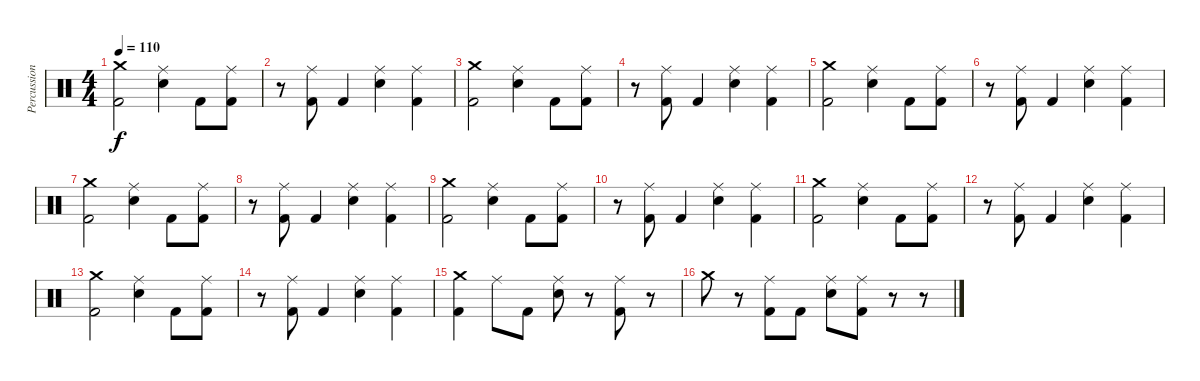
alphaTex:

\track ("Percussion" "Percussion") {instrument percussion}
\staff {score}
\articulation defaults
\ts (4 4)
\tempo 110
\clef neutral
\ks c
("Crash medium (hit)" "Kick (hit) 2").2{dy f} ("Ride (middle)" "Electric Snare (hit)").4 "Kick (hit) 2".8 ("Ride (middle)" "Kick (hit) 2").8 |
r.8 ("Ride (middle)" "Kick (hit) 2").8 "Kick (hit) 2".4 ("Ride (middle)" "Electric Snare (hit)").4 ("Ride (middle)" "Kick (hit) 2").4 |
("Crash medium (hit)" "Kick (hit) 2").2 ("Ride (middle)" "Electric Snare (hit)").4 "Kick (hit) 2".8 ("Ride (middle)" "Kick (hit) 2").8 |
r.8 ("Ride (middle)" "Kick (hit) 2").8 "Kick (hit) 2".4 ("Ride (middle)" "Electric Snare (hit)").4 ("Ride (middle)" "Kick (hit) 2").4 |
("Crash medium (hit)" "Kick (hit) 2").2 ("Ride (middle)" "Electric Snare (hit)").4 "Kick (hit) 2".8 ("Ride (middle)" "Kick (hit) 2").8 |
r.8 ("Ride (middle)" "Kick (hit) 2").8 "Kick (hit) 2".4 ("Ride (middle)" "Electric Snare (hit)").4 ("Ride (middle)" "Kick (hit) 2").4 |
("Crash medium (hit)" "Kick (hit) 2").2 ("Ride (middle)" "Electric Snare (hit)").4 "Kick (hit) 2".8 ("Ride (middle)" "Kick (hit) 2").8 |
r.8 ("Ride (middle)" "Kick (hit) 2").8 "Kick (hit) 2".4 ("Ride (middle)" "Electric Snare (hit)").4 ("Ride (middle)" "Kick (hit) 2").4 |
("Crash medium (hit)" "Kick (hit) 2").2 ("Ride (middle)" "Electric Snare (hit)").4 "Kick (hit) 2".8 ("Ride (middle)" "Kick (hit) 2").8 |
r.8 ("Ride (middle)" "Kick (hit) 2").8 "Kick (hit) 2".4 ("Ride (middle)" "Electric Snare (hit)").4 ("Ride (middle)" "Kick (hit) 2").4 |
("Crash medium (hit)" "Kick (hit) 2").2 ("Ride (middle)" "Electric Snare (hit)").4 "Kick (hit) 2".8 ("Ride (middle)" "Kick (hit) 2").8 |
r.8 ("Ride (middle)" "Kick (hit) 2").8 "Kick (hit) 2".4 ("Ride (middle)" "Electric Snare (hit)").4 ("Ride (middle)" "Kick (hit) 2").4 |
("Crash medium (hit)" "Kick (hit) 2").2 ("Ride (middle)" "Electric Snare (hit)").4 "Kick (hit) 2".8 ("Ride (middle)" "Kick (hit) 2").8 |
r.8 ("Ride (middle)" "Kick (hit) 2").8 "Kick (hit) 2".4 ("Ride (middle)" "Electric Snare (hit)").4 ("Ride (middle)" "Kick (hit) 2").4 |
("Crash medium (hit)" "Kick (hit) 2").4 "Ride (middle)".8 "Kick (hit) 2".8 ("Ride (middle)" "Electric Snare (hit)").8 r.8 ("Ride (middle)" "Kick (hit) 2").8 r.8 |
"Crash medium (hit)".8 r.8 ("Ride (middle)" "Kick (hit) 2").8 "Kick (hit) 2".8 ("Ride (middle)" "Electric Snare (hit)").8 ("Ride (middle)" "Kick (hit) 2").8 r.8 r.8
